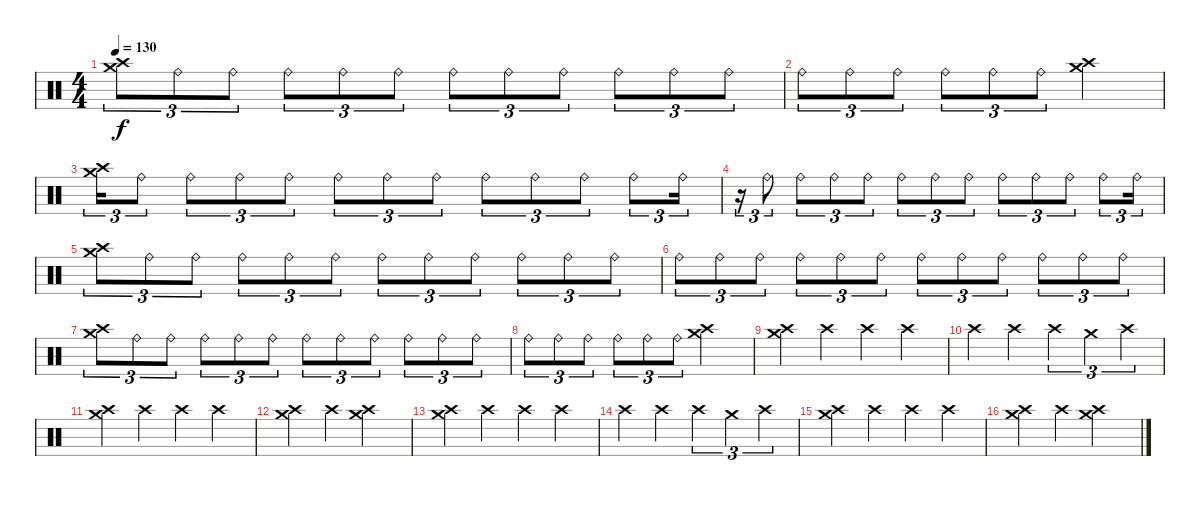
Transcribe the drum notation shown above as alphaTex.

\track "" {instrument percussion}
\staff {score}
\articulation defaults
\ts (4 4)
\tempo 130
\clef neutral
\ks c
("Crash medium (hit)" "Crash high (hit)").8{tu (3 2) dy f} "Ride (bell)".8{tu (3 2)} "Ride (bell)".8{tu (3 2)} "Ride (bell)".8{tu (3 2)} "Ride (bell)".8{tu (3 2)} "Ride (bell)".8{tu (3 2)} "Ride (bell)".8{tu (3 2)} "Ride (bell)".8{tu (3 2)} "Ride (bell)".8{tu (3 2)} "Ride (bell)".8{tu (3 2)} "Ride (bell)".8{tu (3 2)} "Ride (bell)".8{tu (3 2)} |
"Ride (bell)".8{tu (3 2)} "Ride (bell)".8{tu (3 2)} "Ride (bell)".8{tu (3 2)} "Ride (bell)".8{tu (3 2)} "Ride (bell)".8{tu (3 2)} "Ride (bell)".8{tu (3 2)} ("Crash high (hit)" "Crash medium (hit)").2 |
("Crash medium (hit)" "Crash high (hit)").16{tu (3 2)} "Ride (bell)".8{tu (3 2)} "Ride (bell)".8{tu (3 2)} "Ride (bell)".8{tu (3 2)} "Ride (bell)".8{tu (3 2)} "Ride (bell)".8{tu (3 2)} "Ride (bell)".8{tu (3 2)} "Ride (bell)".8{tu (3 2)} "Ride (bell)".8{tu (3 2)} "Ride (bell)".8{tu (3 2)} "Ride (bell)".8{tu (3 2)} "Ride (bell)".8{tu (3 2)} "Ride (bell)".16{tu (3 2)} |
r.16{tu (3 2)} "Ride (bell)".8{tu (3 2)} "Ride (bell)".8{tu (3 2)} "Ride (bell)".8{tu (3 2)} "Ride (bell)".8{tu (3 2)} "Ride (bell)".8{tu (3 2)} "Ride (bell)".8{tu (3 2)} "Ride (bell)".8{tu (3 2)} "Ride (bell)".8{tu (3 2)} "Ride (bell)".8{tu (3 2)} "Ride (bell)".8{tu (3 2)} "Ride (bell)".8{tu (3 2)} "Ride (bell)".16{tu (3 2)} |
("Crash medium (hit)" "Crash high (hit)").8{tu (3 2)} "Ride (bell)".8{tu (3 2)} "Ride (bell)".8{tu (3 2)} "Ride (bell)".8{tu (3 2)} "Ride (bell)".8{tu (3 2)} "Ride (bell)".8{tu (3 2)} "Ride (bell)".8{tu (3 2)} "Ride (bell)".8{tu (3 2)} "Ride (bell)".8{tu (3 2)} "Ride (bell)".8{tu (3 2)} "Ride (bell)".8{tu (3 2)} "Ride (bell)".8{tu (3 2)} |
"Ride (bell)".8{tu (3 2)} "Ride (bell)".8{tu (3 2)} "Ride (bell)".8{tu (3 2)} "Ride (bell)".8{tu (3 2)} "Ride (bell)".8{tu (3 2)} "Ride (bell)".8{tu (3 2)} "Ride (bell)".8{tu (3 2)} "Ride (bell)".8{tu (3 2)} "Ride (bell)".8{tu (3 2)} "Ride (bell)".8{tu (3 2)} "Ride (bell)".8{tu (3 2)} "Ride (bell)".8{tu (3 2)} |
("Crash medium (hit)" "Crash high (hit)").8{tu (3 2)} "Ride (bell)".8{tu (3 2)} "Ride (bell)".8{tu (3 2)} "Ride (bell)".8{tu (3 2)} "Ride (bell)".8{tu (3 2)} "Ride (bell)".8{tu (3 2)} "Ride (bell)".8{tu (3 2)} "Ride (bell)".8{tu (3 2)} "Ride (bell)".8{tu (3 2)} "Ride (bell)".8{tu (3 2)} "Ride (bell)".8{tu (3 2)} "Ride (bell)".8{tu (3 2)} |
"Ride (bell)".8{tu (3 2)} "Ride (bell)".8{tu (3 2)} "Ride (bell)".8{tu (3 2)} "Ride (bell)".8{tu (3 2)} "Ride (bell)".8{tu (3 2)} "Ride (bell)".8{tu (3 2)} ("Crash high (hit)" "Crash medium (hit)").2 |
("Crash medium (hit)" "Crash high (hit)").4 "Crash high (hit)".4 "Crash high (hit)".4 "Crash high (hit)".4 |
"Crash high (hit)".4 "Crash high (hit)".4 "Crash high (hit)".4{tu (3 2)} "Crash medium (hit)".4{tu (3 2)} "Crash high (hit)".4{tu (3 2)} |
("Crash medium (hit)" "Crash high (hit)").4 "Crash high (hit)".4 "Crash high (hit)".4 "Crash high (hit)".4 |
("Crash medium (hit)" "Crash high (hit)").4 "Crash high (hit)".4 ("Crash medium (hit)" "Crash high (hit)").2 |
("Crash medium (hit)" "Crash high (hit)").4 "Crash high (hit)".4 "Crash high (hit)".4 "Crash high (hit)".4 |
"Crash high (hit)".4 "Crash high (hit)".4 "Crash high (hit)".4{tu (3 2)} "Crash medium (hit)".4{tu (3 2)} "Crash high (hit)".4{tu (3 2)} |
("Crash medium (hit)" "Crash high (hit)").4 "Crash high (hit)".4 "Crash high (hit)".4 "Crash high (hit)".4 |
("Crash medium (hit)" "Crash high (hit)").4 "Crash high (hit)".4 ("Crash medium (hit)" "Crash high (hit)").2
